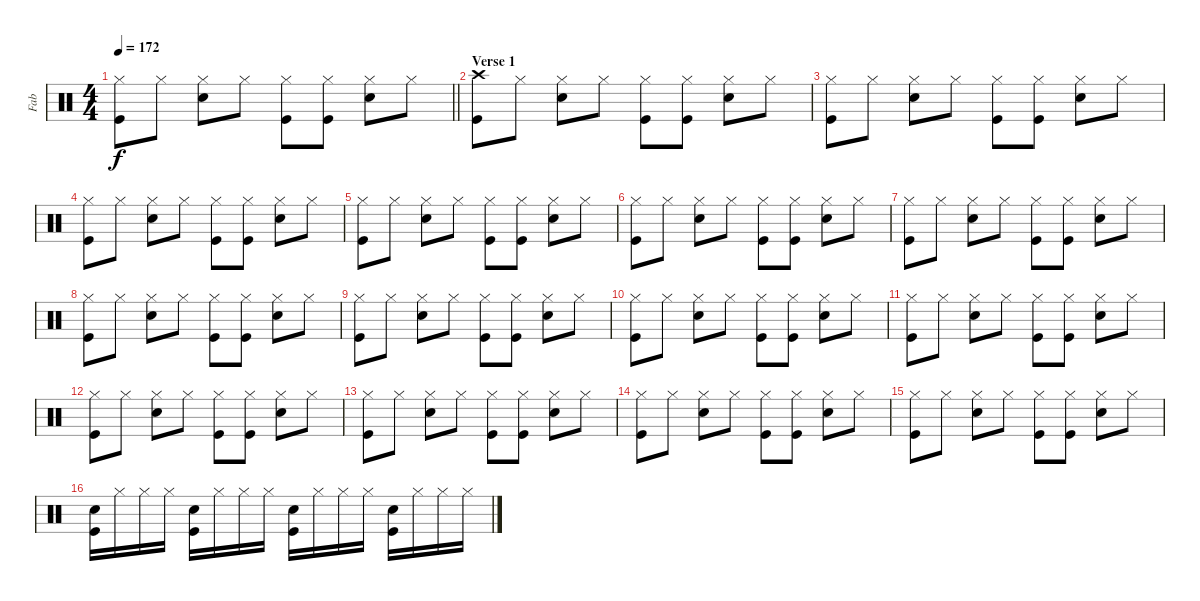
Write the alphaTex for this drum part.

\track ("Fab" "Fab") {instrument percussion}
\staff {score}
\articulation defaults
\ts (4 4)
\tempo 172
\clef neutral
\barLineRight lightlight
\ks c
("Hi-Hat (closed)" "Kick (hit)").8{dy f} "Hi-Hat (closed)".8 ("Hi-Hat (closed)" "Snare (hit) 2").8 "Hi-Hat (closed)".8 ("Hi-Hat (closed)" "Kick (hit)").8 ("Hi-Hat (closed)" "Kick (hit)").8 ("Hi-Hat (closed)" "Snare (hit) 2").8 "Hi-Hat (closed)".8 |
\section ("" "Verse 1")
("Crash high (hit)" "Kick (hit)").8 "Hi-Hat (closed)".8 ("Hi-Hat (closed)" "Snare (hit) 2").8 "Hi-Hat (closed)".8 ("Hi-Hat (closed)" "Kick (hit)").8 ("Hi-Hat (closed)" "Kick (hit)").8 ("Hi-Hat (closed)" "Snare (hit) 2").8 "Hi-Hat (closed)".8 |
("Hi-Hat (closed)" "Kick (hit)").8 "Hi-Hat (closed)".8 ("Hi-Hat (closed)" "Snare (hit) 2").8 "Hi-Hat (closed)".8 ("Hi-Hat (closed)" "Kick (hit)").8 ("Hi-Hat (closed)" "Kick (hit)").8 ("Hi-Hat (closed)" "Snare (hit) 2").8 "Hi-Hat (closed)".8 |
("Hi-Hat (closed)" "Kick (hit)").8 "Hi-Hat (closed)".8 ("Hi-Hat (closed)" "Snare (hit) 2").8 "Hi-Hat (closed)".8 ("Hi-Hat (closed)" "Kick (hit)").8 ("Hi-Hat (closed)" "Kick (hit)").8 ("Hi-Hat (closed)" "Snare (hit) 2").8 "Hi-Hat (closed)".8 |
("Hi-Hat (closed)" "Kick (hit)").8 "Hi-Hat (closed)".8 ("Hi-Hat (closed)" "Snare (hit) 2").8 "Hi-Hat (closed)".8 ("Hi-Hat (closed)" "Kick (hit)").8 ("Hi-Hat (closed)" "Kick (hit)").8 ("Hi-Hat (closed)" "Snare (hit) 2").8 "Hi-Hat (closed)".8 |
("Hi-Hat (closed)" "Kick (hit)").8 "Hi-Hat (closed)".8 ("Hi-Hat (closed)" "Snare (hit) 2").8 "Hi-Hat (closed)".8 ("Hi-Hat (closed)" "Kick (hit)").8 ("Hi-Hat (closed)" "Kick (hit)").8 ("Hi-Hat (closed)" "Snare (hit) 2").8 "Hi-Hat (closed)".8 |
("Hi-Hat (closed)" "Kick (hit)").8 "Hi-Hat (closed)".8 ("Hi-Hat (closed)" "Snare (hit) 2").8 "Hi-Hat (closed)".8 ("Hi-Hat (closed)" "Kick (hit)").8 ("Hi-Hat (closed)" "Kick (hit)").8 ("Hi-Hat (closed)" "Snare (hit) 2").8 "Hi-Hat (closed)".8 |
("Hi-Hat (closed)" "Kick (hit)").8 "Hi-Hat (closed)".8 ("Hi-Hat (closed)" "Snare (hit) 2").8 "Hi-Hat (closed)".8 ("Hi-Hat (closed)" "Kick (hit)").8 ("Hi-Hat (closed)" "Kick (hit)").8 ("Hi-Hat (closed)" "Snare (hit) 2").8 "Hi-Hat (closed)".8 |
("Hi-Hat (closed)" "Kick (hit)").8 "Hi-Hat (closed)".8 ("Hi-Hat (closed)" "Snare (hit) 2").8 "Hi-Hat (closed)".8 ("Hi-Hat (closed)" "Kick (hit)").8 ("Hi-Hat (closed)" "Kick (hit)").8 ("Hi-Hat (closed)" "Snare (hit) 2").8 "Hi-Hat (closed)".8 |
("Hi-Hat (closed)" "Kick (hit)").8 "Hi-Hat (closed)".8 ("Hi-Hat (closed)" "Snare (hit) 2").8 "Hi-Hat (closed)".8 ("Hi-Hat (closed)" "Kick (hit)").8 ("Hi-Hat (closed)" "Kick (hit)").8 ("Hi-Hat (closed)" "Snare (hit) 2").8 "Hi-Hat (closed)".8 |
("Hi-Hat (closed)" "Kick (hit)").8 "Hi-Hat (closed)".8 ("Hi-Hat (closed)" "Snare (hit) 2").8 "Hi-Hat (closed)".8 ("Hi-Hat (closed)" "Kick (hit)").8 ("Hi-Hat (closed)" "Kick (hit)").8 ("Hi-Hat (closed)" "Snare (hit) 2").8 "Hi-Hat (closed)".8 |
("Hi-Hat (closed)" "Kick (hit)").8 "Hi-Hat (closed)".8 ("Hi-Hat (closed)" "Snare (hit) 2").8 "Hi-Hat (closed)".8 ("Hi-Hat (closed)" "Kick (hit)").8 ("Hi-Hat (closed)" "Kick (hit)").8 ("Hi-Hat (closed)" "Snare (hit) 2").8 "Hi-Hat (closed)".8 |
("Hi-Hat (closed)" "Kick (hit)").8 "Hi-Hat (closed)".8 ("Hi-Hat (closed)" "Snare (hit) 2").8 "Hi-Hat (closed)".8 ("Hi-Hat (closed)" "Kick (hit)").8 ("Hi-Hat (closed)" "Kick (hit)").8 ("Hi-Hat (closed)" "Snare (hit) 2").8 "Hi-Hat (closed)".8 |
("Hi-Hat (closed)" "Kick (hit)").8 "Hi-Hat (closed)".8 ("Hi-Hat (closed)" "Snare (hit) 2").8 "Hi-Hat (closed)".8 ("Hi-Hat (closed)" "Kick (hit)").8 ("Hi-Hat (closed)" "Kick (hit)").8 ("Hi-Hat (closed)" "Snare (hit) 2").8 "Hi-Hat (closed)".8 |
("Hi-Hat (closed)" "Kick (hit)").8 "Hi-Hat (closed)".8 ("Hi-Hat (closed)" "Snare (hit) 2").8 "Hi-Hat (closed)".8 ("Hi-Hat (closed)" "Kick (hit)").8 ("Hi-Hat (closed)" "Kick (hit)").8 ("Hi-Hat (closed)" "Snare (hit) 2").8 "Hi-Hat (closed)".8 |
("Snare (hit) 2" "Kick (hit)").16 "Hi-Hat (closed)".16 "Hi-Hat (closed)".16 "Hi-Hat (closed)".16 ("Snare (hit) 2" "Kick (hit)").16 "Hi-Hat (closed)".16 "Hi-Hat (closed)".16 "Hi-Hat (closed)".16 ("Snare (hit) 2" "Kick (hit)").16 "Hi-Hat (closed)".16 "Hi-Hat (closed)".16 "Hi-Hat (closed)".16 ("Snare (hit) 2" "Kick (hit)").16 "Hi-Hat (closed)".16 "Hi-Hat (closed)".16 "Hi-Hat (closed)".16
